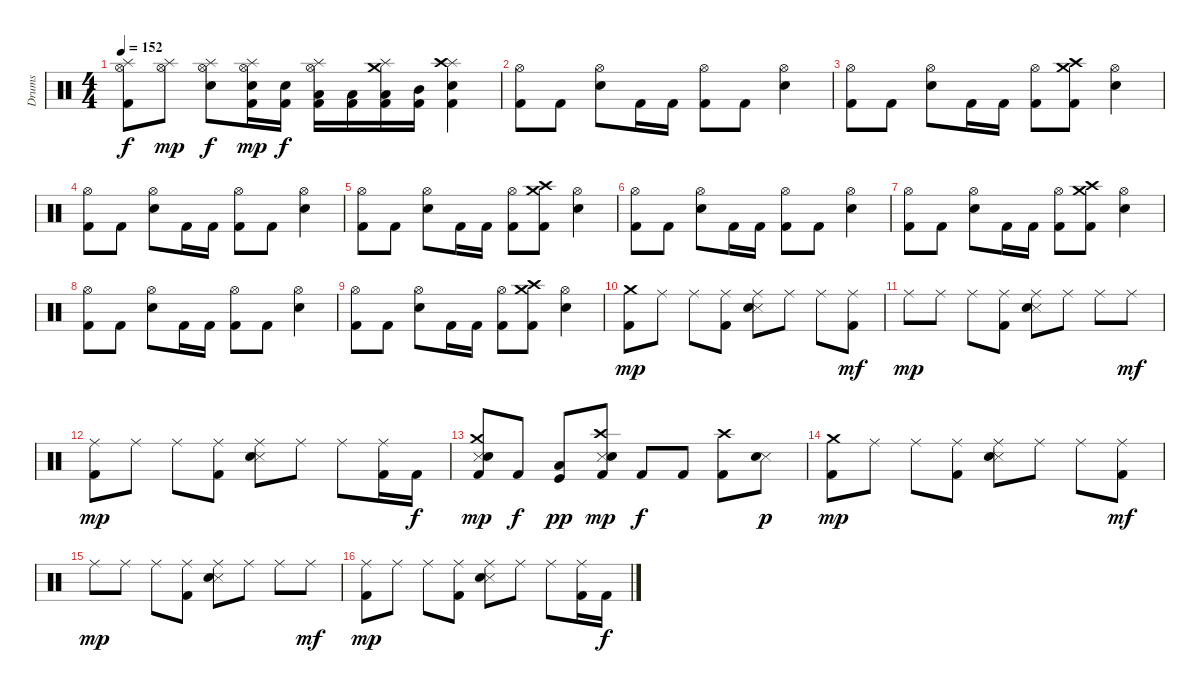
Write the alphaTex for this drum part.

\track ("Drums" "Drums") {instrument percussion}
\staff {score}
\articulation defaults
\ts (4 4)
\tempo 152
\clef neutral
\ks c
("Hi-Hat (open)" "Splash (hit)" "Kick (hit) 2").8{dy f} ("Hi-Hat (open)" "Splash (hit)").8{dy mp} ("Hi-Hat (open)" "Splash (hit)" "Snare (hit) 2").8{dy f} ("Hi-Hat (open)" "Splash (hit)" "Snare (hit) 2" "Kick (hit) 2").16{dy mp} ("Snare (hit) 2" "Kick (hit) 2").16{dy f} ("Hi-Hat (open)" "Splash (hit)" "Low Tom (hit)" "Kick (hit) 2").16 ("Low Tom (hit)" "Kick (hit) 2").16 ("Splash (hit)" "Crash medium (hit)" "Low Tom (hit)" "Kick (hit) 2").16 ("Mid Tom (hit)" "Kick (hit) 2").16 ("Splash (hit)" "Crash high (hit)" "Snare (hit) 2" "Kick (hit) 2").4 |
("Hi-Hat (open)" "Kick (hit) 2").8 "Kick (hit) 2".8 ("Hi-Hat (open)" "Snare (hit) 2").8 "Kick (hit) 2".16 "Kick (hit) 2".16 ("Hi-Hat (open)" "Kick (hit) 2").8 "Kick (hit) 2".8 ("Hi-Hat (open)" "Snare (hit) 2").4 |
("Hi-Hat (open)" "Kick (hit) 2").8 "Kick (hit) 2".8 ("Hi-Hat (open)" "Snare (hit) 2").8 "Kick (hit) 2".16 "Kick (hit) 2".16 ("Hi-Hat (open)" "Kick (hit) 2").8 ("Crash medium (hit)" "Crash high (hit)" "Kick (hit) 2").8 ("Hi-Hat (open)" "Snare (hit) 2").4 |
("Hi-Hat (open)" "Kick (hit) 2").8 "Kick (hit) 2".8 ("Hi-Hat (open)" "Snare (hit) 2").8 "Kick (hit) 2".16 "Kick (hit) 2".16 ("Hi-Hat (open)" "Kick (hit) 2").8 "Kick (hit) 2".8 ("Hi-Hat (open)" "Snare (hit) 2").4 |
("Hi-Hat (open)" "Kick (hit) 2").8 "Kick (hit) 2".8 ("Hi-Hat (open)" "Snare (hit) 2").8 "Kick (hit) 2".16 "Kick (hit) 2".16 ("Hi-Hat (open)" "Kick (hit) 2").8 ("Crash medium (hit)" "Crash high (hit)" "Kick (hit) 2").8 ("Hi-Hat (open)" "Snare (hit) 2").4 |
("Hi-Hat (open)" "Kick (hit) 2").8 "Kick (hit) 2".8 ("Hi-Hat (open)" "Snare (hit) 2").8 "Kick (hit) 2".16 "Kick (hit) 2".16 ("Hi-Hat (open)" "Kick (hit) 2").8 "Kick (hit) 2".8 ("Hi-Hat (open)" "Snare (hit) 2").4 |
("Hi-Hat (open)" "Kick (hit) 2").8 "Kick (hit) 2".8 ("Hi-Hat (open)" "Snare (hit) 2").8 "Kick (hit) 2".16 "Kick (hit) 2".16 ("Hi-Hat (open)" "Kick (hit) 2").8 ("Crash medium (hit)" "Crash high (hit)" "Kick (hit) 2").8 ("Hi-Hat (open)" "Snare (hit) 2").4 |
("Hi-Hat (open)" "Kick (hit) 2").8 "Kick (hit) 2".8 ("Hi-Hat (open)" "Snare (hit) 2").8 "Kick (hit) 2".16 "Kick (hit) 2".16 ("Hi-Hat (open)" "Kick (hit) 2").8 "Kick (hit) 2".8 ("Hi-Hat (open)" "Snare (hit) 2").4 |
("Hi-Hat (open)" "Kick (hit) 2").8 "Kick (hit) 2".8 ("Hi-Hat (open)" "Snare (hit) 2").8 "Kick (hit) 2".16 "Kick (hit) 2".16 ("Hi-Hat (open)" "Kick (hit) 2").8 ("Crash medium (hit)" "Crash high (hit)" "Kick (hit) 2").8 ("Hi-Hat (open)" "Snare (hit) 2").4 |
("Crash medium (hit)" "Kick (hit) 2").8{dy mp volume 15} "Ride (middle)".8 "Ride (middle)".8 ("Ride (middle)" "Kick (hit) 2").8 ("Ride (middle)" "Snare (side stick) 3" "Snare (hit) 2").8 "Ride (middle)".8 "Ride (middle)".8 ("Ride (middle)" "Kick (hit) 2").8{dy mf} |
"Ride (middle)".8{dy mp} "Ride (middle)".8 "Ride (middle)".8 ("Ride (middle)" "Kick (hit) 2").8 ("Ride (middle)" "Snare (side stick) 3" "Snare (hit) 2").8 "Ride (middle)".8 "Ride (middle)".8 "Ride (middle)".8{dy mf} |
("Ride (middle)" "Kick (hit) 2").8{dy mp} "Ride (middle)".8 "Ride (middle)".8 ("Ride (middle)" "Kick (hit) 2").8 ("Ride (middle)" "Snare (side stick) 3" "Snare (hit) 2").8 "Ride (middle)".8 "Ride (middle)".8 ("Ride (middle)" "Kick (hit) 2").16 "Kick (hit) 2".16{dy f} |
("Crash medium (hit)" "Snare (side stick) 3" "Snare (hit) 2" "Kick (hit) 2").8{dy mp} "Kick (hit) 2".8{dy f} ("Low Tom (hit)" "Kick (hit)").8{dy pp} ("Crash high (hit)" "Snare (side stick) 3" "Snare (hit) 2" "Kick (hit) 2").8{dy mp} "Kick (hit) 2".8{dy f} "Kick (hit) 2".8 ("Crash high (hit)" "Kick (hit) 2").8 ("Snare (side stick) 3" "Snare (hit) 2").8{dy p} |
("Crash medium (hit)" "Kick (hit) 2").8{dy mp} "Ride (middle)".8 "Ride (middle)".8 ("Ride (middle)" "Kick (hit) 2").8 ("Ride (middle)" "Snare (side stick) 3" "Snare (hit) 2").8 "Ride (middle)".8 "Ride (middle)".8 ("Ride (middle)" "Kick (hit) 2").8{dy mf} |
"Ride (middle)".8{dy mp} "Ride (middle)".8 "Ride (middle)".8 ("Ride (middle)" "Kick (hit) 2").8 ("Ride (middle)" "Snare (side stick) 3" "Snare (hit) 2").8 "Ride (middle)".8 "Ride (middle)".8 "Ride (middle)".8{dy mf} |
("Ride (middle)" "Kick (hit) 2").8{dy mp} "Ride (middle)".8 "Ride (middle)".8 ("Ride (middle)" "Kick (hit) 2").8 ("Ride (middle)" "Snare (side stick) 3" "Snare (hit) 2").8 "Ride (middle)".8 "Ride (middle)".8 ("Ride (middle)" "Kick (hit) 2").16 "Kick (hit) 2".16{dy f}
